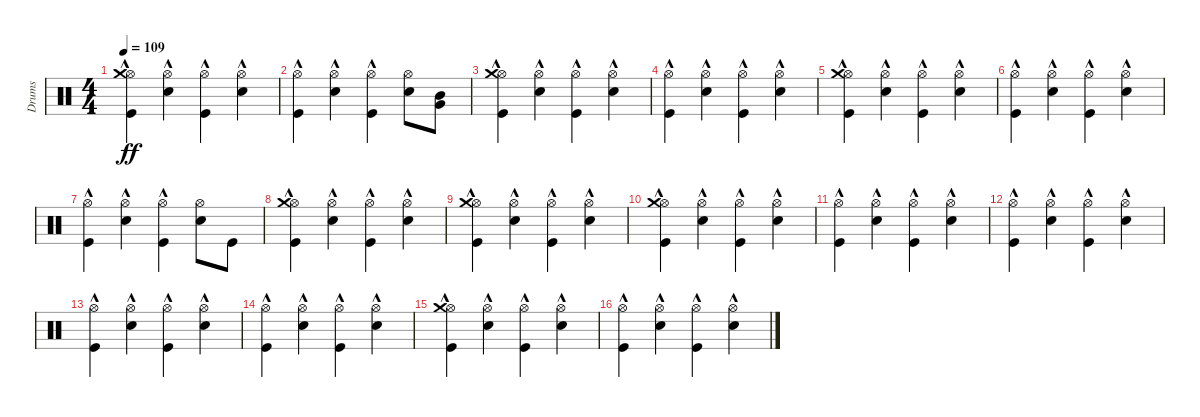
\track ("Drums" "Drums") {instrument percussion}
\staff {score}
\articulation defaults
\ts (4 4)
\tempo 109
\clef neutral
\ks c
("Kick (hit)"{hac} "Hi-Hat (open)"{hac} "Crash medium (hit)"{hac}).4{dy ff} ("Electric Snare (hit)"{hac} "Hi-Hat (open)"{hac}).4 ("Kick (hit)"{hac} "Hi-Hat (open)"{hac}).4 ("Electric Snare (hit)"{hac} "Hi-Hat (open)"{hac}).4 |
("Kick (hit)"{hac} "Hi-Hat (open)"{hac}).4 ("Electric Snare (hit)"{hac} "Hi-Hat (open)"{hac}).4 ("Kick (hit)"{hac} "Hi-Hat (open)"{hac}).4 ("Electric Snare (hit)" "Hi-Hat (open)").8 ("Very Low Tom (hit)" "Mid Tom (hit)").8 |
("Kick (hit)"{hac} "Hi-Hat (open)"{hac} "Crash medium (hit)"{hac}).4 ("Electric Snare (hit)"{hac} "Hi-Hat (open)"{hac}).4 ("Kick (hit)"{hac} "Hi-Hat (open)"{hac}).4 ("Electric Snare (hit)"{hac} "Hi-Hat (open)"{hac}).4 |
("Kick (hit)"{hac} "Hi-Hat (open)"{hac}).4 ("Electric Snare (hit)"{hac} "Hi-Hat (open)"{hac}).4 ("Kick (hit)"{hac} "Hi-Hat (open)"{hac}).4 ("Electric Snare (hit)"{hac} "Hi-Hat (open)"{hac}).4 |
("Kick (hit)"{hac} "Hi-Hat (open)"{hac} "Crash medium (hit)"{hac}).4 ("Electric Snare (hit)"{hac} "Hi-Hat (open)"{hac}).4 ("Kick (hit)"{hac} "Hi-Hat (open)"{hac}).4 ("Electric Snare (hit)"{hac} "Hi-Hat (open)"{hac}).4 |
("Kick (hit)"{hac} "Hi-Hat (open)"{hac}).4 ("Electric Snare (hit)"{hac} "Hi-Hat (open)"{hac}).4 ("Kick (hit)"{hac} "Hi-Hat (open)"{hac}).4 ("Electric Snare (hit)"{hac} "Hi-Hat (open)"{hac}).4 |
("Kick (hit)"{hac} "Hi-Hat (open)"{hac}).4 ("Electric Snare (hit)"{hac} "Hi-Hat (open)"{hac}).4 ("Kick (hit)"{hac} "Hi-Hat (open)"{hac}).4 ("Electric Snare (hit)" "Hi-Hat (open)").8 "Kick (hit)".8 |
("Kick (hit)"{hac} "Hi-Hat (open)"{hac} "Crash medium (hit)"{hac}).4 ("Electric Snare (hit)"{hac} "Hi-Hat (open)"{hac}).4 ("Kick (hit)"{hac} "Hi-Hat (open)"{hac}).4 ("Electric Snare (hit)"{hac} "Hi-Hat (open)"{hac}).4 |
("Kick (hit)"{hac} "Hi-Hat (open)"{hac} "Crash medium (hit)"{hac}).4 ("Electric Snare (hit)"{hac} "Hi-Hat (open)"{hac}).4 ("Kick (hit)"{hac} "Hi-Hat (open)"{hac}).4 ("Electric Snare (hit)"{hac} "Hi-Hat (open)"{hac}).4 |
("Kick (hit)"{hac} "Hi-Hat (open)"{hac} "Crash medium (hit)"{hac}).4 ("Electric Snare (hit)"{hac} "Hi-Hat (open)"{hac}).4 ("Kick (hit)"{hac} "Hi-Hat (open)"{hac}).4 ("Electric Snare (hit)"{hac} "Hi-Hat (open)"{hac}).4 |
("Kick (hit)"{hac} "Hi-Hat (open)"{hac}).4 ("Electric Snare (hit)"{hac} "Hi-Hat (open)"{hac}).4 ("Kick (hit)"{hac} "Hi-Hat (open)"{hac}).4 ("Electric Snare (hit)"{hac} "Hi-Hat (open)"{hac}).4 |
("Kick (hit)"{hac} "Hi-Hat (open)"{hac}).4 ("Electric Snare (hit)"{hac} "Hi-Hat (open)"{hac}).4 ("Kick (hit)"{hac} "Hi-Hat (open)"{hac}).4 ("Electric Snare (hit)"{hac} "Hi-Hat (open)"{hac}).4 |
("Kick (hit)"{hac} "Hi-Hat (open)"{hac}).4 ("Electric Snare (hit)"{hac} "Hi-Hat (open)"{hac}).4 ("Kick (hit)"{hac} "Hi-Hat (open)"{hac}).4 ("Electric Snare (hit)"{hac} "Hi-Hat (open)"{hac}).4 |
("Kick (hit)"{hac} "Hi-Hat (open)"{hac}).4 ("Electric Snare (hit)"{hac} "Hi-Hat (open)"{hac}).4 ("Kick (hit)"{hac} "Hi-Hat (open)"{hac}).4 ("Electric Snare (hit)"{hac} "Hi-Hat (open)"{hac}).4 |
("Kick (hit)"{hac} "Hi-Hat (open)"{hac} "Crash medium (hit)"{hac}).4 ("Electric Snare (hit)"{hac} "Hi-Hat (open)"{hac}).4 ("Kick (hit)"{hac} "Hi-Hat (open)"{hac}).4 ("Electric Snare (hit)"{hac} "Hi-Hat (open)"{hac}).4 |
("Kick (hit)"{hac} "Hi-Hat (open)"{hac}).4 ("Electric Snare (hit)"{hac} "Hi-Hat (open)"{hac}).4 ("Kick (hit)"{hac} "Hi-Hat (open)"{hac}).4 ("Electric Snare (hit)"{hac} "Hi-Hat (open)"{hac}).4
